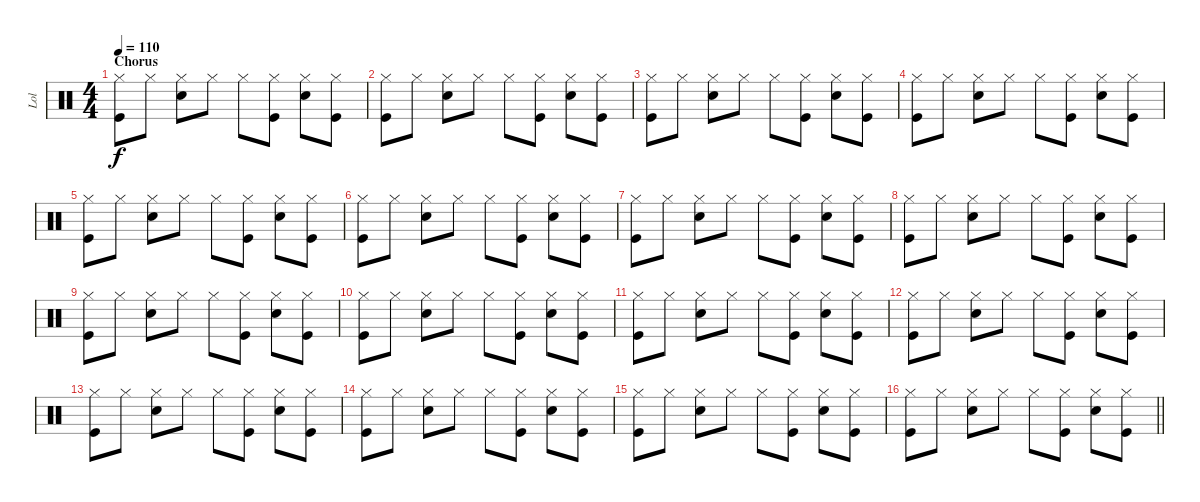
\track ("Lol" "Lol") {instrument percussion}
\staff {score}
\articulation defaults
\ts (4 4)
\section ("" "Chorus")
\tempo 110
\clef neutral
\ks c
("Hi-Hat (closed)" "Kick (hit)").8{dy f} "Hi-Hat (closed)".8 ("Hi-Hat (closed)" "Electric Snare (hit)").8 "Hi-Hat (closed)".8 "Hi-Hat (closed)".8 ("Hi-Hat (closed)" "Kick (hit)").8 ("Hi-Hat (closed)" "Electric Snare (hit)").8 ("Hi-Hat (closed)" "Kick (hit)").8 |
("Hi-Hat (closed)" "Kick (hit)").8 "Hi-Hat (closed)".8 ("Hi-Hat (closed)" "Electric Snare (hit)").8 "Hi-Hat (closed)".8 "Hi-Hat (closed)".8 ("Hi-Hat (closed)" "Kick (hit)").8 ("Hi-Hat (closed)" "Electric Snare (hit)").8 ("Hi-Hat (closed)" "Kick (hit)").8 |
("Hi-Hat (closed)" "Kick (hit)").8 "Hi-Hat (closed)".8 ("Hi-Hat (closed)" "Electric Snare (hit)").8 "Hi-Hat (closed)".8 "Hi-Hat (closed)".8 ("Hi-Hat (closed)" "Kick (hit)").8 ("Hi-Hat (closed)" "Electric Snare (hit)").8 ("Hi-Hat (closed)" "Kick (hit)").8 |
("Hi-Hat (closed)" "Kick (hit)").8 "Hi-Hat (closed)".8 ("Hi-Hat (closed)" "Electric Snare (hit)").8 "Hi-Hat (closed)".8 "Hi-Hat (closed)".8 ("Hi-Hat (closed)" "Kick (hit)").8 ("Hi-Hat (closed)" "Electric Snare (hit)").8 ("Hi-Hat (closed)" "Kick (hit)").8 |
("Hi-Hat (closed)" "Kick (hit)").8 "Hi-Hat (closed)".8 ("Hi-Hat (closed)" "Electric Snare (hit)").8 "Hi-Hat (closed)".8 "Hi-Hat (closed)".8 ("Hi-Hat (closed)" "Kick (hit)").8 ("Hi-Hat (closed)" "Electric Snare (hit)").8 ("Hi-Hat (closed)" "Kick (hit)").8 |
("Hi-Hat (closed)" "Kick (hit)").8 "Hi-Hat (closed)".8 ("Hi-Hat (closed)" "Electric Snare (hit)").8 "Hi-Hat (closed)".8 "Hi-Hat (closed)".8 ("Hi-Hat (closed)" "Kick (hit)").8 ("Hi-Hat (closed)" "Electric Snare (hit)").8 ("Hi-Hat (closed)" "Kick (hit)").8 |
("Hi-Hat (closed)" "Kick (hit)").8 "Hi-Hat (closed)".8 ("Hi-Hat (closed)" "Electric Snare (hit)").8 "Hi-Hat (closed)".8 "Hi-Hat (closed)".8 ("Hi-Hat (closed)" "Kick (hit)").8 ("Hi-Hat (closed)" "Electric Snare (hit)").8 ("Hi-Hat (closed)" "Kick (hit)").8 |
("Hi-Hat (closed)" "Kick (hit)").8 "Hi-Hat (closed)".8 ("Hi-Hat (closed)" "Electric Snare (hit)").8 "Hi-Hat (closed)".8 "Hi-Hat (closed)".8 ("Hi-Hat (closed)" "Kick (hit)").8 ("Hi-Hat (closed)" "Electric Snare (hit)").8 ("Hi-Hat (closed)" "Kick (hit)").8 |
("Hi-Hat (closed)" "Kick (hit)").8 "Hi-Hat (closed)".8 ("Hi-Hat (closed)" "Electric Snare (hit)").8 "Hi-Hat (closed)".8 "Hi-Hat (closed)".8 ("Hi-Hat (closed)" "Kick (hit)").8 ("Hi-Hat (closed)" "Electric Snare (hit)").8 ("Hi-Hat (closed)" "Kick (hit)").8 |
("Hi-Hat (closed)" "Kick (hit)").8 "Hi-Hat (closed)".8 ("Hi-Hat (closed)" "Electric Snare (hit)").8 "Hi-Hat (closed)".8 "Hi-Hat (closed)".8 ("Hi-Hat (closed)" "Kick (hit)").8 ("Hi-Hat (closed)" "Electric Snare (hit)").8 ("Hi-Hat (closed)" "Kick (hit)").8 |
("Hi-Hat (closed)" "Kick (hit)").8 "Hi-Hat (closed)".8 ("Hi-Hat (closed)" "Electric Snare (hit)").8 "Hi-Hat (closed)".8 "Hi-Hat (closed)".8 ("Hi-Hat (closed)" "Kick (hit)").8 ("Hi-Hat (closed)" "Electric Snare (hit)").8 ("Hi-Hat (closed)" "Kick (hit)").8 |
("Hi-Hat (closed)" "Kick (hit)").8 "Hi-Hat (closed)".8 ("Hi-Hat (closed)" "Electric Snare (hit)").8 "Hi-Hat (closed)".8 "Hi-Hat (closed)".8 ("Hi-Hat (closed)" "Kick (hit)").8 ("Hi-Hat (closed)" "Electric Snare (hit)").8 ("Hi-Hat (closed)" "Kick (hit)").8 |
("Hi-Hat (closed)" "Kick (hit)").8 "Hi-Hat (closed)".8 ("Hi-Hat (closed)" "Electric Snare (hit)").8 "Hi-Hat (closed)".8 "Hi-Hat (closed)".8 ("Hi-Hat (closed)" "Kick (hit)").8 ("Hi-Hat (closed)" "Electric Snare (hit)").8 ("Hi-Hat (closed)" "Kick (hit)").8 |
("Hi-Hat (closed)" "Kick (hit)").8 "Hi-Hat (closed)".8 ("Hi-Hat (closed)" "Electric Snare (hit)").8 "Hi-Hat (closed)".8 "Hi-Hat (closed)".8 ("Hi-Hat (closed)" "Kick (hit)").8 ("Hi-Hat (closed)" "Electric Snare (hit)").8 ("Hi-Hat (closed)" "Kick (hit)").8 |
("Hi-Hat (closed)" "Kick (hit)").8 "Hi-Hat (closed)".8 ("Hi-Hat (closed)" "Electric Snare (hit)").8 "Hi-Hat (closed)".8 "Hi-Hat (closed)".8 ("Hi-Hat (closed)" "Kick (hit)").8 ("Hi-Hat (closed)" "Electric Snare (hit)").8 ("Hi-Hat (closed)" "Kick (hit)").8 |
\barLineRight lightlight
("Hi-Hat (closed)" "Kick (hit)").8 "Hi-Hat (closed)".8 ("Hi-Hat (closed)" "Electric Snare (hit)").8 "Hi-Hat (closed)".8 "Hi-Hat (closed)".8 ("Hi-Hat (closed)" "Kick (hit)").8 ("Hi-Hat (closed)" "Electric Snare (hit)").8 ("Hi-Hat (closed)" "Kick (hit)").8
